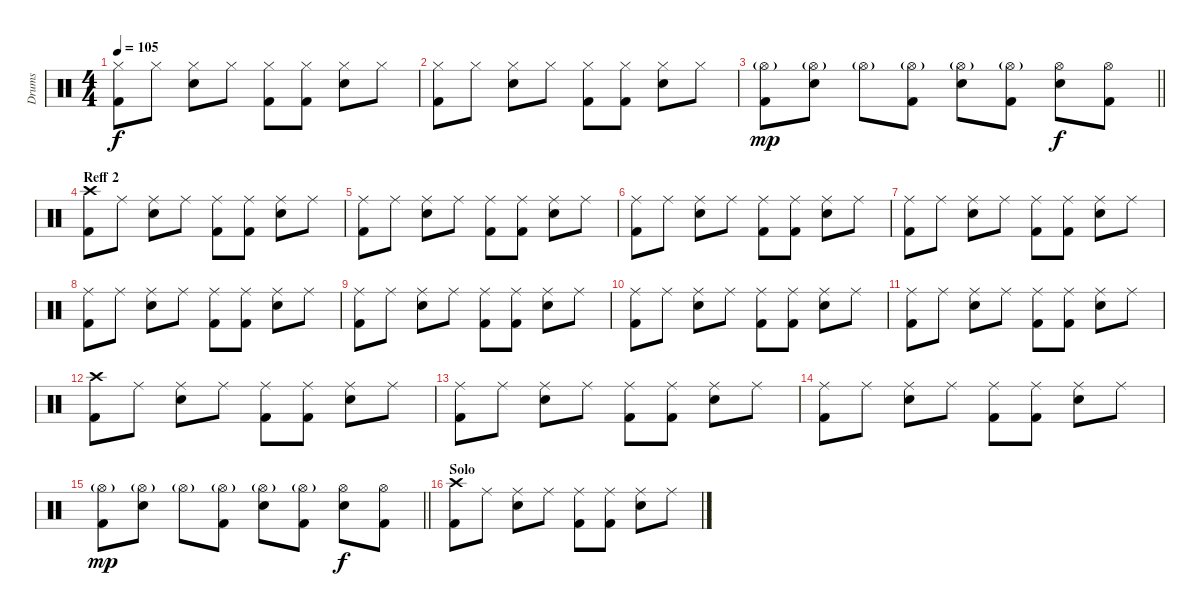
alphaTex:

\track ("Drums" "Drums") {instrument percussion}
\staff {score}
\articulation defaults
\ts (4 4)
\tempo 105
\clef neutral
\ks c
("Hi-Hat (closed)" "Kick (hit) 2").8{dy f} "Hi-Hat (closed)".8 ("Hi-Hat (closed)" "Electric Snare (hit)").8 "Hi-Hat (closed)".8 ("Hi-Hat (closed)" "Kick (hit) 2").8 ("Hi-Hat (closed)" "Kick (hit) 2").8 ("Hi-Hat (closed)" "Electric Snare (hit)").8 "Hi-Hat (closed)".8 |
("Hi-Hat (closed)" "Kick (hit) 2").8 "Hi-Hat (closed)".8 ("Hi-Hat (closed)" "Electric Snare (hit)").8 "Hi-Hat (closed)".8 ("Hi-Hat (closed)" "Kick (hit) 2").8 ("Hi-Hat (closed)" "Kick (hit) 2").8 ("Hi-Hat (closed)" "Electric Snare (hit)").8 "Hi-Hat (closed)".8 |
\barLineRight lightlight
("Hi-Hat (open)"{g} "Kick (hit) 2").8{dy mp} ("Hi-Hat (open)"{g} "Electric Snare (hit)").8 "Hi-Hat (open)"{g}.8 ("Hi-Hat (open)"{g} "Kick (hit) 2").8 ("Hi-Hat (open)"{g} "Electric Snare (hit)").8 ("Hi-Hat (open)"{g} "Kick (hit) 2").8 ("Hi-Hat (open)" "Electric Snare (hit)").8{dy f} ("Hi-Hat (open)" "Kick (hit) 2").8 |
\section ("" "Reff 2")
("Crash high (hit)" "Kick (hit) 2").8 "Ride (middle)".8 ("Ride (middle)" "Electric Snare (hit)").8 "Ride (middle)".8 ("Ride (middle)" "Kick (hit) 2").8 ("Ride (middle)" "Kick (hit) 2").8 ("Ride (middle)" "Electric Snare (hit)").8 "Ride (middle)".8 |
("Ride (middle)" "Kick (hit) 2").8 "Ride (middle)".8 ("Ride (middle)" "Electric Snare (hit)").8 "Ride (middle)".8 ("Ride (middle)" "Kick (hit) 2").8 ("Ride (middle)" "Kick (hit) 2").8 ("Ride (middle)" "Electric Snare (hit)").8 "Ride (middle)".8 |
("Ride (middle)" "Kick (hit) 2").8 "Ride (middle)".8 ("Ride (middle)" "Electric Snare (hit)").8 "Ride (middle)".8 ("Ride (middle)" "Kick (hit) 2").8 ("Ride (middle)" "Kick (hit) 2").8 ("Ride (middle)" "Electric Snare (hit)").8 "Ride (middle)".8 |
("Ride (middle)" "Kick (hit) 2").8 "Ride (middle)".8 ("Ride (middle)" "Electric Snare (hit)").8 "Ride (middle)".8 ("Ride (middle)" "Kick (hit) 2").8 ("Ride (middle)" "Kick (hit) 2").8 ("Ride (middle)" "Electric Snare (hit)").8 "Ride (middle)".8 |
("Ride (middle)" "Kick (hit) 2").8 "Ride (middle)".8 ("Ride (middle)" "Electric Snare (hit)").8 "Ride (middle)".8 ("Ride (middle)" "Kick (hit) 2").8 ("Ride (middle)" "Kick (hit) 2").8 ("Ride (middle)" "Electric Snare (hit)").8 "Ride (middle)".8 |
("Ride (middle)" "Kick (hit) 2").8 "Ride (middle)".8 ("Ride (middle)" "Electric Snare (hit)").8 "Ride (middle)".8 ("Ride (middle)" "Kick (hit) 2").8 ("Ride (middle)" "Kick (hit) 2").8 ("Ride (middle)" "Electric Snare (hit)").8 "Ride (middle)".8 |
("Ride (middle)" "Kick (hit) 2").8 "Ride (middle)".8 ("Ride (middle)" "Electric Snare (hit)").8 "Ride (middle)".8 ("Ride (middle)" "Kick (hit) 2").8 ("Ride (middle)" "Kick (hit) 2").8 ("Ride (middle)" "Electric Snare (hit)").8 "Ride (middle)".8 |
("Ride (middle)" "Kick (hit) 2").8 "Ride (middle)".8 ("Ride (middle)" "Electric Snare (hit)").8 "Ride (middle)".8 ("Ride (middle)" "Kick (hit) 2").8 ("Ride (middle)" "Kick (hit) 2").8 ("Ride (middle)" "Electric Snare (hit)").8 "Ride (middle)".8 |
("Crash high (hit)" "Kick (hit) 2").8 "Ride (middle)".8 ("Ride (middle)" "Electric Snare (hit)").8 "Ride (middle)".8 ("Ride (middle)" "Kick (hit) 2").8 ("Ride (middle)" "Kick (hit) 2").8 ("Ride (middle)" "Electric Snare (hit)").8 "Ride (middle)".8 |
("Ride (middle)" "Kick (hit) 2").8 "Ride (middle)".8 ("Ride (middle)" "Electric Snare (hit)").8 "Ride (middle)".8 ("Ride (middle)" "Kick (hit) 2").8 ("Ride (middle)" "Kick (hit) 2").8 ("Ride (middle)" "Electric Snare (hit)").8 "Ride (middle)".8 |
("Ride (middle)" "Kick (hit) 2").8 "Ride (middle)".8 ("Ride (middle)" "Electric Snare (hit)").8 "Ride (middle)".8 ("Ride (middle)" "Kick (hit) 2").8 ("Ride (middle)" "Kick (hit) 2").8 ("Ride (middle)" "Electric Snare (hit)").8 "Ride (middle)".8 |
\barLineRight lightlight
("Hi-Hat (open)"{g} "Kick (hit) 2").8{dy mp} ("Hi-Hat (open)"{g} "Electric Snare (hit)").8 "Hi-Hat (open)"{g}.8 ("Hi-Hat (open)"{g} "Kick (hit) 2").8 ("Hi-Hat (open)"{g} "Electric Snare (hit)").8 ("Hi-Hat (open)"{g} "Kick (hit) 2").8 ("Hi-Hat (open)" "Electric Snare (hit)").8{dy f} ("Hi-Hat (open)" "Kick (hit) 2").8 |
\section ("" "Solo")
("Crash high (hit)" "Kick (hit) 2").8 "Ride (middle)".8 ("Ride (middle)" "Electric Snare (hit)").8 "Ride (middle)".8 ("Ride (middle)" "Kick (hit) 2").8 ("Ride (middle)" "Kick (hit) 2").8 ("Ride (middle)" "Electric Snare (hit)").8 "Ride (middle)".8
